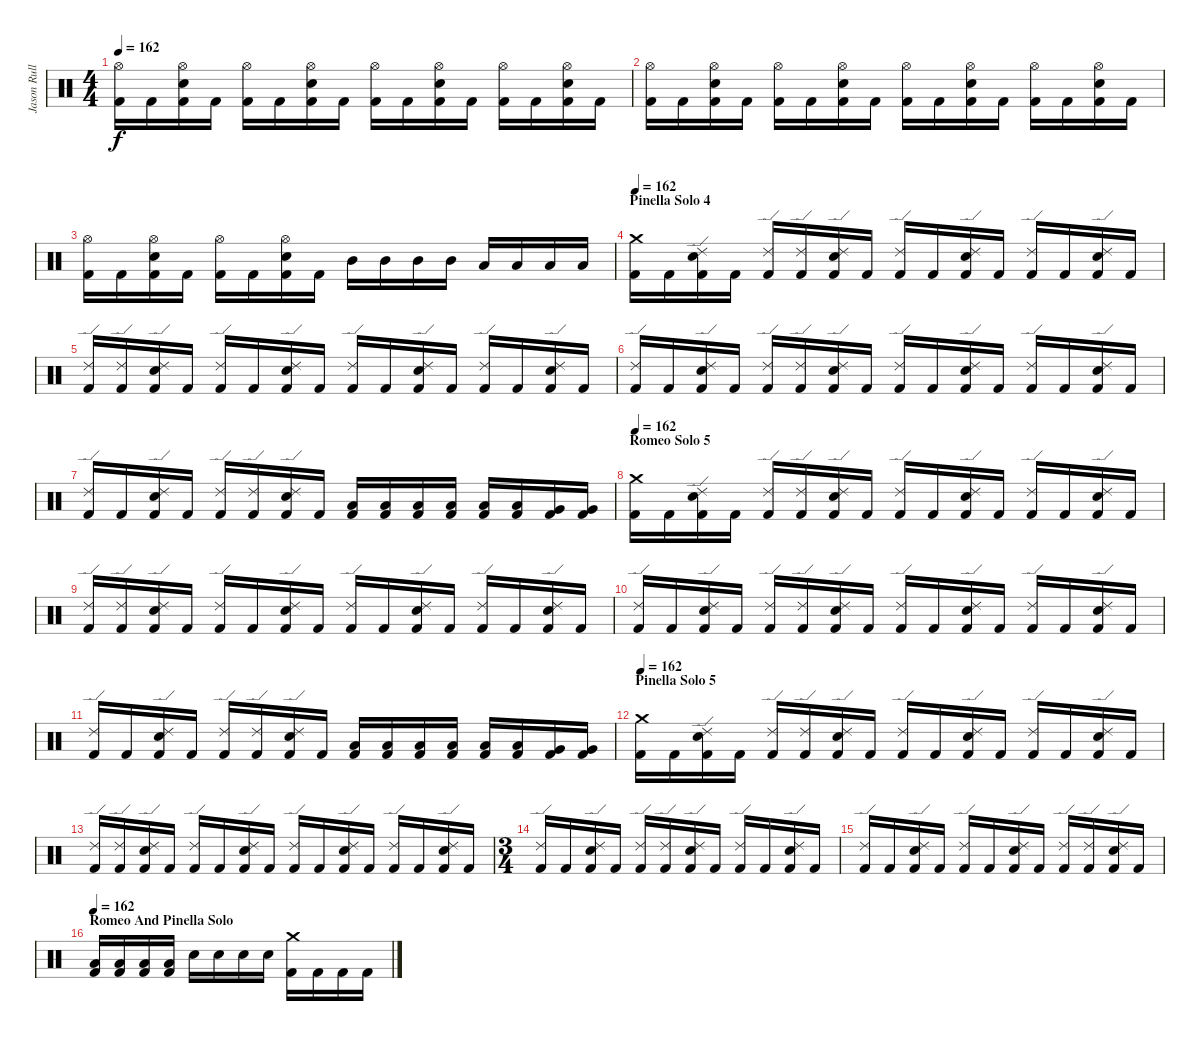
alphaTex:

\track ("Jason Rullo" "Jason Rull") {instrument percussion}
\staff {score}
\articulation defaults
\ts (4 4)
\tempo 162
\clef neutral
\ks c
("Hi-Hat (open)" "Kick (hit) 2").16{dy f} "Kick (hit) 2".16 ("Kick (hit) 2" "Electric Snare (hit)" "Hi-Hat (open)").16 "Kick (hit) 2".16 ("Kick (hit) 2" "Hi-Hat (open)").16 "Kick (hit) 2".16 ("Kick (hit) 2" "Electric Snare (hit)" "Hi-Hat (open)").16 "Kick (hit) 2".16 ("Kick (hit) 2" "Hi-Hat (open)").16 "Kick (hit) 2".16 ("Kick (hit) 2" "Electric Snare (hit)" "Hi-Hat (open)").16 "Kick (hit) 2".16 ("Kick (hit) 2" "Hi-Hat (open)").16 "Kick (hit) 2".16 ("Kick (hit) 2" "Electric Snare (hit)" "Hi-Hat (open)").16 "Kick (hit) 2".16 |
("Hi-Hat (open)" "Kick (hit) 2").16 "Kick (hit) 2".16 ("Kick (hit) 2" "Electric Snare (hit)" "Hi-Hat (open)").16 "Kick (hit) 2".16 ("Kick (hit) 2" "Hi-Hat (open)").16 "Kick (hit) 2".16 ("Kick (hit) 2" "Electric Snare (hit)" "Hi-Hat (open)").16 "Kick (hit) 2".16 ("Kick (hit) 2" "Hi-Hat (open)").16 "Kick (hit) 2".16 ("Kick (hit) 2" "Electric Snare (hit)" "Hi-Hat (open)").16 "Kick (hit) 2".16 ("Kick (hit) 2" "Hi-Hat (open)").16 "Kick (hit) 2".16 ("Kick (hit) 2" "Electric Snare (hit)" "Hi-Hat (open)").16 "Kick (hit) 2".16 |
("Hi-Hat (open)" "Kick (hit) 2").16 "Kick (hit) 2".16 ("Kick (hit) 2" "Electric Snare (hit)" "Hi-Hat (open)").16 "Kick (hit) 2".16 ("Kick (hit) 2" "Hi-Hat (open)").16 "Kick (hit) 2".16 ("Kick (hit) 2" "Electric Snare (hit)" "Hi-Hat (open)").16 "Kick (hit) 2".16 "Mid Tom (hit)".16 "Mid Tom (hit)".16 "Mid Tom (hit)".16 "Mid Tom (hit)".16 "Low Tom (hit)".16 "Low Tom (hit)".16 "Low Tom (hit)".16 "Low Tom (hit)".16 |
\section ("" "Pinella Solo 4")
\tempo 162
("Kick (hit) 2" "Crash medium (hit)").16 "Kick (hit) 2".16 ("Ride (edge) 2" "Kick (hit) 2" "Electric Snare (hit)").16 "Kick (hit) 2".16 ("Ride (edge) 2" "Kick (hit) 2").16 ("Ride (edge) 2" "Kick (hit) 2").16 ("Ride (edge) 2" "Kick (hit) 2" "Electric Snare (hit)").16 "Kick (hit) 2".16 ("Ride (edge) 2" "Kick (hit) 2").16 "Kick (hit) 2".16 ("Ride (edge) 2" "Kick (hit) 2" "Electric Snare (hit)").16 "Kick (hit) 2".16 ("Ride (edge) 2" "Kick (hit) 2").16 "Kick (hit) 2".16 ("Ride (edge) 2" "Kick (hit) 2" "Electric Snare (hit)").16 "Kick (hit) 2".16 |
("Ride (edge) 2" "Kick (hit) 2").16 ("Ride (edge) 2" "Kick (hit) 2").16 ("Ride (edge) 2" "Kick (hit) 2" "Electric Snare (hit)").16 "Kick (hit) 2".16 ("Ride (edge) 2" "Kick (hit) 2").16 "Kick (hit) 2".16 ("Ride (edge) 2" "Kick (hit) 2" "Electric Snare (hit)").16 "Kick (hit) 2".16 ("Ride (edge) 2" "Kick (hit) 2").16 "Kick (hit) 2".16 ("Ride (edge) 2" "Kick (hit) 2" "Electric Snare (hit)").16 "Kick (hit) 2".16 ("Ride (edge) 2" "Kick (hit) 2").16 "Kick (hit) 2".16 ("Ride (edge) 2" "Kick (hit) 2" "Electric Snare (hit)").16 "Kick (hit) 2".16 |
("Ride (edge) 2" "Kick (hit) 2").16 "Kick (hit) 2".16 ("Ride (edge) 2" "Kick (hit) 2" "Electric Snare (hit)").16 "Kick (hit) 2".16 ("Ride (edge) 2" "Kick (hit) 2").16 ("Ride (edge) 2" "Kick (hit) 2").16 ("Ride (edge) 2" "Kick (hit) 2" "Electric Snare (hit)").16 "Kick (hit) 2".16 ("Ride (edge) 2" "Kick (hit) 2").16 "Kick (hit) 2".16 ("Ride (edge) 2" "Kick (hit) 2" "Electric Snare (hit)").16 "Kick (hit) 2".16 ("Ride (edge) 2" "Kick (hit) 2").16 "Kick (hit) 2".16 ("Ride (edge) 2" "Kick (hit) 2" "Electric Snare (hit)").16 "Kick (hit) 2".16 |
("Ride (edge) 2" "Kick (hit) 2").16 "Kick (hit) 2".16 ("Ride (edge) 2" "Kick (hit) 2" "Electric Snare (hit)").16 "Kick (hit) 2".16 ("Ride (edge) 2" "Kick (hit) 2").16 ("Ride (edge) 2" "Kick (hit) 2").16 ("Ride (edge) 2" "Kick (hit) 2" "Electric Snare (hit)").16 "Kick (hit) 2".16 ("Low Tom (hit)" "Kick (hit) 2").16 ("Low Tom (hit)" "Kick (hit) 2").16 ("Low Tom (hit)" "Kick (hit) 2").16 ("Low Tom (hit)" "Kick (hit) 2").16 ("Low Floor Tom (hit)" "Kick (hit) 2").16 ("Low Floor Tom (hit)" "Kick (hit) 2").16 ("Very Low Tom (hit)" "Kick (hit) 2").16 ("Very Low Tom (hit)" "Kick (hit) 2").16 |
\section ("" "Romeo Solo 5")
\tempo 162
("Kick (hit) 2" "Crash medium (hit)").16 "Kick (hit) 2".16 ("Ride (edge) 2" "Kick (hit) 2" "Electric Snare (hit)").16 "Kick (hit) 2".16 ("Ride (edge) 2" "Kick (hit) 2").16 ("Ride (edge) 2" "Kick (hit) 2").16 ("Ride (edge) 2" "Kick (hit) 2" "Electric Snare (hit)").16 "Kick (hit) 2".16 ("Ride (edge) 2" "Kick (hit) 2").16 "Kick (hit) 2".16 ("Ride (edge) 2" "Kick (hit) 2" "Electric Snare (hit)").16 "Kick (hit) 2".16 ("Ride (edge) 2" "Kick (hit) 2").16 "Kick (hit) 2".16 ("Ride (edge) 2" "Kick (hit) 2" "Electric Snare (hit)").16 "Kick (hit) 2".16 |
("Ride (edge) 2" "Kick (hit) 2").16 ("Ride (edge) 2" "Kick (hit) 2").16 ("Ride (edge) 2" "Kick (hit) 2" "Electric Snare (hit)").16 "Kick (hit) 2".16 ("Ride (edge) 2" "Kick (hit) 2").16 "Kick (hit) 2".16 ("Ride (edge) 2" "Kick (hit) 2" "Electric Snare (hit)").16 "Kick (hit) 2".16 ("Ride (edge) 2" "Kick (hit) 2").16 "Kick (hit) 2".16 ("Ride (edge) 2" "Kick (hit) 2" "Electric Snare (hit)").16 "Kick (hit) 2".16 ("Ride (edge) 2" "Kick (hit) 2").16 "Kick (hit) 2".16 ("Ride (edge) 2" "Kick (hit) 2" "Electric Snare (hit)").16 "Kick (hit) 2".16 |
("Ride (edge) 2" "Kick (hit) 2").16 "Kick (hit) 2".16 ("Ride (edge) 2" "Kick (hit) 2" "Electric Snare (hit)").16 "Kick (hit) 2".16 ("Ride (edge) 2" "Kick (hit) 2").16 ("Ride (edge) 2" "Kick (hit) 2").16 ("Ride (edge) 2" "Kick (hit) 2" "Electric Snare (hit)").16 "Kick (hit) 2".16 ("Ride (edge) 2" "Kick (hit) 2").16 "Kick (hit) 2".16 ("Ride (edge) 2" "Kick (hit) 2" "Electric Snare (hit)").16 "Kick (hit) 2".16 ("Ride (edge) 2" "Kick (hit) 2").16 "Kick (hit) 2".16 ("Ride (edge) 2" "Kick (hit) 2" "Electric Snare (hit)").16 "Kick (hit) 2".16 |
("Ride (edge) 2" "Kick (hit) 2").16 "Kick (hit) 2".16 ("Ride (edge) 2" "Kick (hit) 2" "Electric Snare (hit)").16 "Kick (hit) 2".16 ("Ride (edge) 2" "Kick (hit) 2").16 ("Ride (edge) 2" "Kick (hit) 2").16 ("Ride (edge) 2" "Kick (hit) 2" "Electric Snare (hit)").16 "Kick (hit) 2".16 ("Low Tom (hit)" "Kick (hit) 2").16 ("Low Tom (hit)" "Kick (hit) 2").16 ("Low Tom (hit)" "Kick (hit) 2").16 ("Low Tom (hit)" "Kick (hit) 2").16 ("Low Floor Tom (hit)" "Kick (hit) 2").16 ("Low Floor Tom (hit)" "Kick (hit) 2").16 ("Very Low Tom (hit)" "Kick (hit) 2").16 ("Very Low Tom (hit)" "Kick (hit) 2").16 |
\section ("" "Pinella Solo 5")
\tempo 162
("Kick (hit) 2" "Crash medium (hit)").16 "Kick (hit) 2".16 ("Ride (edge) 2" "Kick (hit) 2" "Electric Snare (hit)").16 "Kick (hit) 2".16 ("Ride (edge) 2" "Kick (hit) 2").16 ("Ride (edge) 2" "Kick (hit) 2").16 ("Ride (edge) 2" "Kick (hit) 2" "Electric Snare (hit)").16 "Kick (hit) 2".16 ("Ride (edge) 2" "Kick (hit) 2").16 "Kick (hit) 2".16 ("Ride (edge) 2" "Kick (hit) 2" "Electric Snare (hit)").16 "Kick (hit) 2".16 ("Ride (edge) 2" "Kick (hit) 2").16 "Kick (hit) 2".16 ("Ride (edge) 2" "Kick (hit) 2" "Electric Snare (hit)").16 "Kick (hit) 2".16 |
("Ride (edge) 2" "Kick (hit) 2").16 ("Ride (edge) 2" "Kick (hit) 2").16 ("Ride (edge) 2" "Kick (hit) 2" "Electric Snare (hit)").16 "Kick (hit) 2".16 ("Ride (edge) 2" "Kick (hit) 2").16 "Kick (hit) 2".16 ("Ride (edge) 2" "Kick (hit) 2" "Electric Snare (hit)").16 "Kick (hit) 2".16 ("Ride (edge) 2" "Kick (hit) 2").16 "Kick (hit) 2".16 ("Ride (edge) 2" "Kick (hit) 2" "Electric Snare (hit)").16 "Kick (hit) 2".16 ("Ride (edge) 2" "Kick (hit) 2").16 "Kick (hit) 2".16 ("Ride (edge) 2" "Kick (hit) 2" "Electric Snare (hit)").16 "Kick (hit) 2".16 |
\ts (3 4)
("Ride (edge) 2" "Kick (hit) 2").16 "Kick (hit) 2".16 ("Ride (edge) 2" "Kick (hit) 2" "Electric Snare (hit)").16 "Kick (hit) 2".16 ("Ride (edge) 2" "Kick (hit) 2").16 ("Ride (edge) 2" "Kick (hit) 2").16 ("Ride (edge) 2" "Kick (hit) 2" "Electric Snare (hit)").16 "Kick (hit) 2".16 ("Ride (edge) 2" "Kick (hit) 2").16 "Kick (hit) 2".16 ("Ride (edge) 2" "Kick (hit) 2" "Electric Snare (hit)").16 "Kick (hit) 2".16 |
("Ride (edge) 2" "Kick (hit) 2").16 "Kick (hit) 2".16 ("Ride (edge) 2" "Kick (hit) 2" "Electric Snare (hit)").16 "Kick (hit) 2".16 ("Ride (edge) 2" "Kick (hit) 2").16 "Kick (hit) 2".16 ("Ride (edge) 2" "Kick (hit) 2" "Electric Snare (hit)").16 "Kick (hit) 2".16 ("Ride (edge) 2" "Kick (hit) 2").16 ("Ride (edge) 2" "Kick (hit) 2").16 ("Ride (edge) 2" "Kick (hit) 2" "Electric Snare (hit)").16 "Kick (hit) 2".16 |
\section ("" "Romeo And Pinella Solo")
\tempo 162
("Low Tom (hit)" "Kick (hit) 2").16 ("Low Tom (hit)" "Kick (hit) 2").16 ("Low Tom (hit)" "Kick (hit) 2").16 ("Low Tom (hit)" "Kick (hit) 2").16 "Electric Snare (hit)".16 "Electric Snare (hit)".16 "Electric Snare (hit)".16 "Electric Snare (hit)".16 ("Crash medium (hit)" "Kick (hit) 2").16 "Kick (hit) 2".16 "Kick (hit) 2".16 "Kick (hit) 2".16
